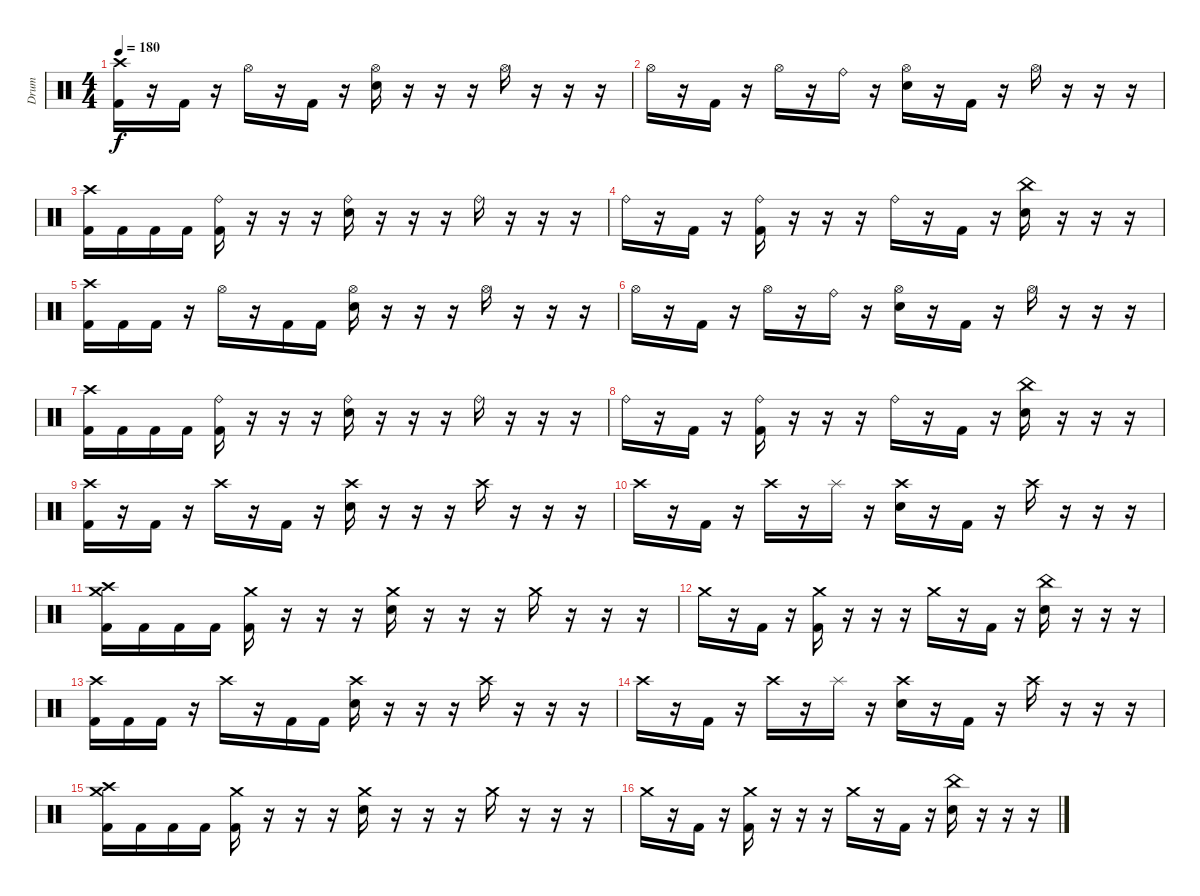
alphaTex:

\track ("Drum" "Drum") {instrument percussion}
\staff {score}
\articulation defaults
\ts (4 4)
\tempo 180
\clef neutral
\ks c
("Crash high (hit)" "Kick (hit) 2").16{dy f} r.16 "Kick (hit) 2".16 r.16 "Hi-Hat (open)".16 r.16 "Kick (hit) 2".16 r.16 ("Hi-Hat (open)" "Electric Snare (hit)").16 r.16 r.16 r.16 "Hi-Hat (open)".16 r.16 r.16 r.16 |
"Hi-Hat (open)".16 r.16 "Kick (hit) 2".16 r.16 "Hi-Hat (open)".16 r.16 "Ride (bell)".16 r.16 ("Hi-Hat (open)" "Electric Snare (hit)").16 r.16 "Kick (hit) 2".16 r.16 "Hi-Hat (open)".16 r.16 r.16 r.16 |
("Crash high (hit)" "Kick (hit) 2").16 "Kick (hit) 2".16 "Kick (hit) 2".16 "Kick (hit) 2".16 ("Ride (bell)" "Kick (hit) 2").16 r.16 r.16 r.16 ("Ride (bell)" "Electric Snare (hit)").16 r.16 r.16 r.16 "Ride (bell)".16 r.16 r.16 r.16 |
"Ride (bell)".16 r.16 "Kick (hit) 2".16 r.16 ("Ride (bell)" "Kick (hit) 2").16 r.16 r.16 r.16 "Ride (bell)".16 r.16 "Kick (hit) 2".16 r.16 ("China (hit)" "Electric Snare (hit)").16 r.16 r.16 r.16 |
("Crash high (hit)" "Kick (hit) 2").16 "Kick (hit) 2".16 "Kick (hit) 2".16 r.16 "Hi-Hat (open)".16 r.16 "Kick (hit) 2".16 "Kick (hit) 2".16 ("Hi-Hat (open)" "Electric Snare (hit)").16 r.16 r.16 r.16 "Hi-Hat (open)".16 r.16 r.16 r.16 |
"Hi-Hat (open)".16 r.16 "Kick (hit) 2".16 r.16 "Hi-Hat (open)".16 r.16 "Ride (bell)".16 r.16 ("Hi-Hat (open)" "Electric Snare (hit)").16 r.16 "Kick (hit) 2".16 r.16 "Hi-Hat (open)".16 r.16 r.16 r.16 |
("Crash high (hit)" "Kick (hit) 2").16 "Kick (hit) 2".16 "Kick (hit) 2".16 "Kick (hit) 2".16 ("Ride (bell)" "Kick (hit) 2").16 r.16 r.16 r.16 ("Ride (bell)" "Electric Snare (hit)").16 r.16 r.16 r.16 "Ride (bell)".16 r.16 r.16 r.16 |
"Ride (bell)".16 r.16 "Kick (hit) 2".16 r.16 ("Ride (bell)" "Kick (hit) 2").16 r.16 r.16 r.16 "Ride (bell)".16 r.16 "Kick (hit) 2".16 r.16 ("China (hit)" "Electric Snare (hit)").16 r.16 r.16 r.16 |
("Crash high (hit)" "Kick (hit) 2").16 r.16 "Kick (hit) 2".16 r.16 "Crash high (hit)".16 r.16 "Kick (hit) 2".16 r.16 ("Crash high (hit)" "Electric Snare (hit)").16 r.16 r.16 r.16 "Crash high (hit)".16 r.16 r.16 r.16 |
"Crash high (hit)".16 r.16 "Kick (hit) 2".16 r.16 "Crash high (hit)".16 r.16 "Splash (hit)".16 r.16 ("Crash high (hit)" "Electric Snare (hit)").16 r.16 "Kick (hit) 2".16 r.16 "Crash high (hit)".16 r.16 r.16 r.16 |
("Crash high (hit)" "Crash medium (hit)" "Kick (hit) 2").16 "Kick (hit) 2".16 "Kick (hit) 2".16 "Kick (hit) 2".16 ("Crash medium (hit)" "Kick (hit) 2").16 r.16 r.16 r.16 ("Crash medium (hit)" "Electric Snare (hit)").16 r.16 r.16 r.16 "Crash medium (hit)".16 r.16 r.16 r.16 |
"Crash medium (hit)".16 r.16 "Kick (hit) 2".16 r.16 ("Crash medium (hit)" "Kick (hit) 2").16 r.16 r.16 r.16 "Crash medium (hit)".16 r.16 "Kick (hit) 2".16 r.16 ("China (hit)" "Electric Snare (hit)").16 r.16 r.16 r.16 |
("Crash high (hit)" "Kick (hit) 2").16 "Kick (hit) 2".16 "Kick (hit) 2".16 r.16 "Crash high (hit)".16 r.16 "Kick (hit) 2".16 "Kick (hit) 2".16 ("Crash high (hit)" "Electric Snare (hit)").16 r.16 r.16 r.16 "Crash high (hit)".16 r.16 r.16 r.16 |
"Crash high (hit)".16 r.16 "Kick (hit) 2".16 r.16 "Crash high (hit)".16 r.16 "Splash (hit)".16 r.16 ("Crash high (hit)" "Electric Snare (hit)").16 r.16 "Kick (hit) 2".16 r.16 "Crash high (hit)".16 r.16 r.16 r.16 |
("Crash high (hit)" "Crash medium (hit)" "Kick (hit) 2").16 "Kick (hit) 2".16 "Kick (hit) 2".16 "Kick (hit) 2".16 ("Crash medium (hit)" "Kick (hit) 2").16 r.16 r.16 r.16 ("Crash medium (hit)" "Electric Snare (hit)").16 r.16 r.16 r.16 "Crash medium (hit)".16 r.16 r.16 r.16 |
"Crash medium (hit)".16 r.16 "Kick (hit) 2".16 r.16 ("Crash medium (hit)" "Kick (hit) 2").16 r.16 r.16 r.16 "Crash medium (hit)".16 r.16 "Kick (hit) 2".16 r.16 ("China (hit)" "Electric Snare (hit)").16 r.16 r.16 r.16
